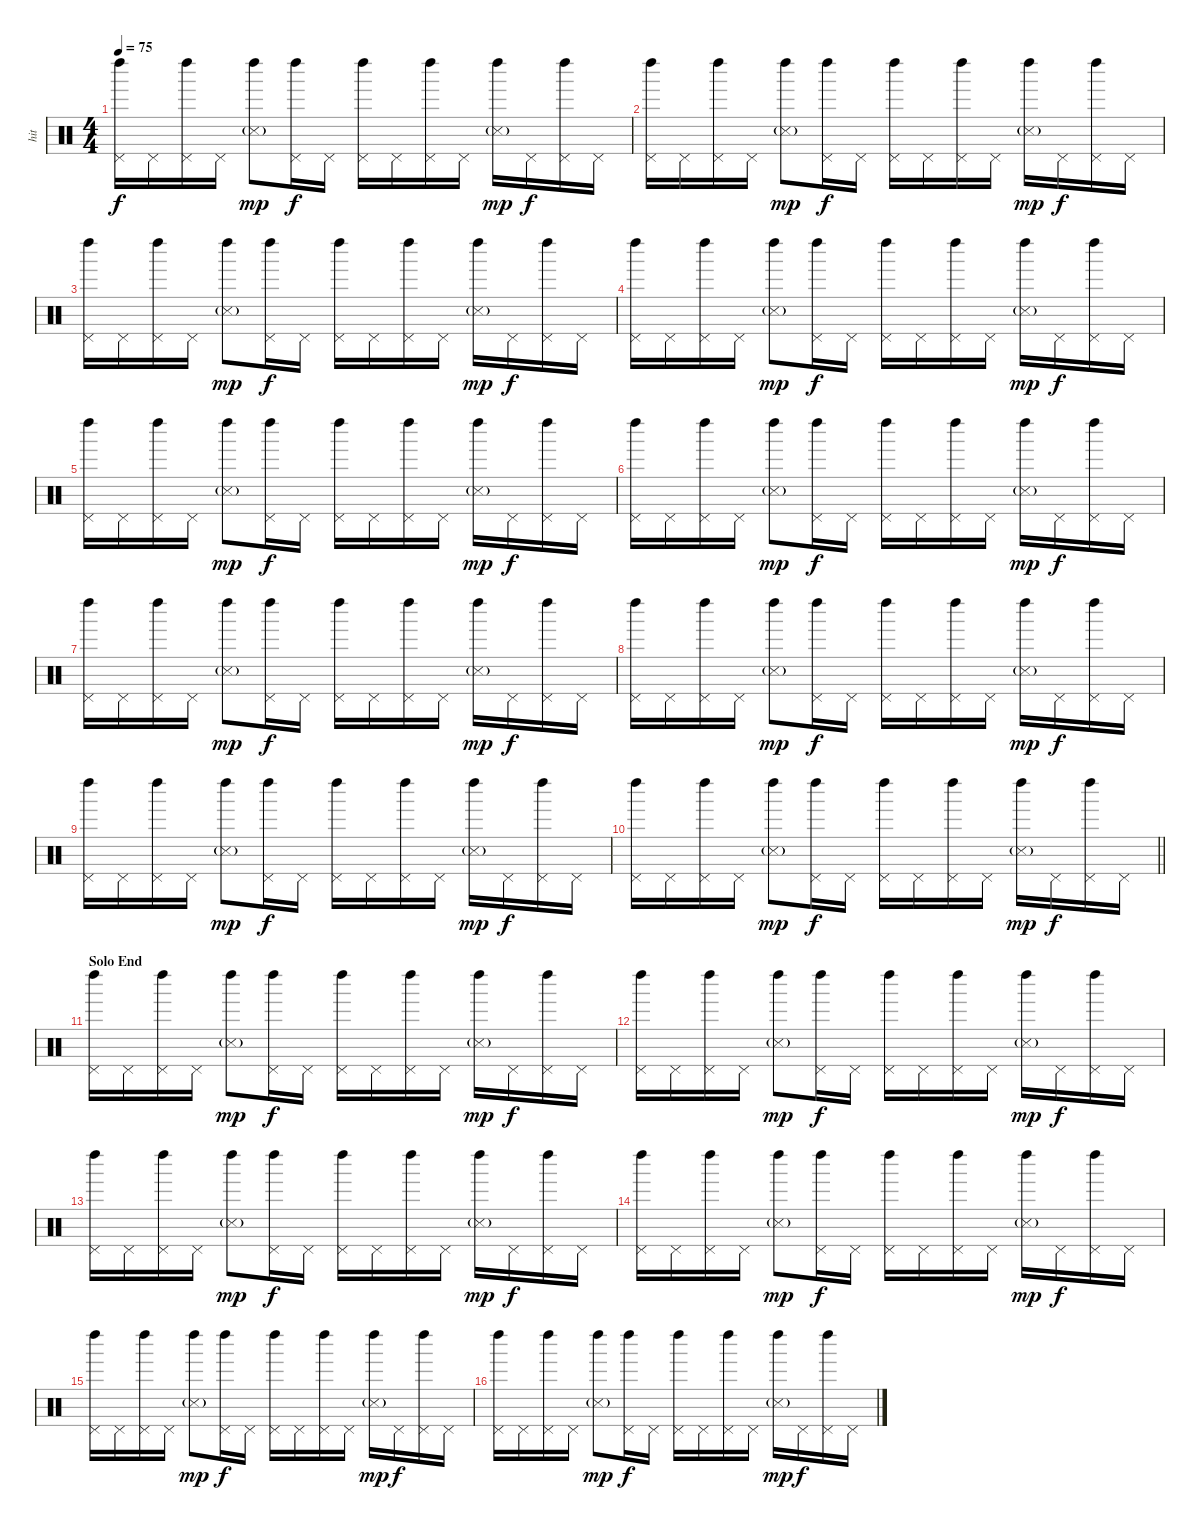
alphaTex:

\track ("hit" "hit") {instrument percussion}
\staff {score}
\articulation defaults
\ts (4 4)
\tempo 75
\clef neutral
\ks c
("Pedal Hi-Hat (hit)" "Left Maraca (hit)").16{dy f} "Pedal Hi-Hat (hit)".16 ("Pedal Hi-Hat (hit)" "Left Maraca (hit)").16 "Pedal Hi-Hat (hit)".16 ("Metronome (hit)"{g} "Left Maraca (hit)").8{dy mp} ("Pedal Hi-Hat (hit)" "Left Maraca (hit)").16{dy f} "Pedal Hi-Hat (hit)".16 ("Pedal Hi-Hat (hit)" "Left Maraca (hit)").16 "Pedal Hi-Hat (hit)".16 ("Pedal Hi-Hat (hit)" "Left Maraca (hit)").16 "Pedal Hi-Hat (hit)".16 ("Metronome (hit)"{g} "Left Maraca (hit)").16{dy mp} "Pedal Hi-Hat (hit)".16{dy f} ("Pedal Hi-Hat (hit)" "Left Maraca (hit)").16 "Pedal Hi-Hat (hit)".16 |
("Pedal Hi-Hat (hit)" "Left Maraca (hit)").16 "Pedal Hi-Hat (hit)".16 ("Pedal Hi-Hat (hit)" "Left Maraca (hit)").16 "Pedal Hi-Hat (hit)".16 ("Metronome (hit)"{g} "Left Maraca (hit)").8{dy mp} ("Pedal Hi-Hat (hit)" "Left Maraca (hit)").16{dy f} "Pedal Hi-Hat (hit)".16 ("Pedal Hi-Hat (hit)" "Left Maraca (hit)").16 "Pedal Hi-Hat (hit)".16 ("Pedal Hi-Hat (hit)" "Left Maraca (hit)").16 "Pedal Hi-Hat (hit)".16 ("Metronome (hit)"{g} "Left Maraca (hit)").16{dy mp} "Pedal Hi-Hat (hit)".16{dy f} ("Pedal Hi-Hat (hit)" "Left Maraca (hit)").16 "Pedal Hi-Hat (hit)".16 |
("Pedal Hi-Hat (hit)" "Left Maraca (hit)").16 "Pedal Hi-Hat (hit)".16 ("Pedal Hi-Hat (hit)" "Left Maraca (hit)").16 "Pedal Hi-Hat (hit)".16 ("Metronome (hit)"{g} "Left Maraca (hit)").8{dy mp} ("Pedal Hi-Hat (hit)" "Left Maraca (hit)").16{dy f} "Pedal Hi-Hat (hit)".16 ("Pedal Hi-Hat (hit)" "Left Maraca (hit)").16 "Pedal Hi-Hat (hit)".16 ("Pedal Hi-Hat (hit)" "Left Maraca (hit)").16 "Pedal Hi-Hat (hit)".16 ("Metronome (hit)"{g} "Left Maraca (hit)").16{dy mp} "Pedal Hi-Hat (hit)".16{dy f} ("Pedal Hi-Hat (hit)" "Left Maraca (hit)").16 "Pedal Hi-Hat (hit)".16 |
("Pedal Hi-Hat (hit)" "Left Maraca (hit)").16 "Pedal Hi-Hat (hit)".16 ("Pedal Hi-Hat (hit)" "Left Maraca (hit)").16 "Pedal Hi-Hat (hit)".16 ("Metronome (hit)"{g} "Left Maraca (hit)").8{dy mp} ("Pedal Hi-Hat (hit)" "Left Maraca (hit)").16{dy f} "Pedal Hi-Hat (hit)".16 ("Pedal Hi-Hat (hit)" "Left Maraca (hit)").16 "Pedal Hi-Hat (hit)".16 ("Pedal Hi-Hat (hit)" "Left Maraca (hit)").16 "Pedal Hi-Hat (hit)".16 ("Metronome (hit)"{g} "Left Maraca (hit)").16{dy mp} "Pedal Hi-Hat (hit)".16{dy f} ("Pedal Hi-Hat (hit)" "Left Maraca (hit)").16 "Pedal Hi-Hat (hit)".16 |
("Pedal Hi-Hat (hit)" "Left Maraca (hit)").16 "Pedal Hi-Hat (hit)".16 ("Pedal Hi-Hat (hit)" "Left Maraca (hit)").16 "Pedal Hi-Hat (hit)".16 ("Metronome (hit)"{g} "Left Maraca (hit)").8{dy mp} ("Pedal Hi-Hat (hit)" "Left Maraca (hit)").16{dy f} "Pedal Hi-Hat (hit)".16 ("Pedal Hi-Hat (hit)" "Left Maraca (hit)").16 "Pedal Hi-Hat (hit)".16 ("Pedal Hi-Hat (hit)" "Left Maraca (hit)").16 "Pedal Hi-Hat (hit)".16 ("Metronome (hit)"{g} "Left Maraca (hit)").16{dy mp} "Pedal Hi-Hat (hit)".16{dy f} ("Pedal Hi-Hat (hit)" "Left Maraca (hit)").16 "Pedal Hi-Hat (hit)".16 |
("Pedal Hi-Hat (hit)" "Left Maraca (hit)").16 "Pedal Hi-Hat (hit)".16 ("Pedal Hi-Hat (hit)" "Left Maraca (hit)").16 "Pedal Hi-Hat (hit)".16 ("Metronome (hit)"{g} "Left Maraca (hit)").8{dy mp} ("Pedal Hi-Hat (hit)" "Left Maraca (hit)").16{dy f} "Pedal Hi-Hat (hit)".16 ("Pedal Hi-Hat (hit)" "Left Maraca (hit)").16 "Pedal Hi-Hat (hit)".16 ("Pedal Hi-Hat (hit)" "Left Maraca (hit)").16 "Pedal Hi-Hat (hit)".16 ("Metronome (hit)"{g} "Left Maraca (hit)").16{dy mp} "Pedal Hi-Hat (hit)".16{dy f} ("Pedal Hi-Hat (hit)" "Left Maraca (hit)").16 "Pedal Hi-Hat (hit)".16 |
("Pedal Hi-Hat (hit)" "Left Maraca (hit)").16 "Pedal Hi-Hat (hit)".16 ("Pedal Hi-Hat (hit)" "Left Maraca (hit)").16 "Pedal Hi-Hat (hit)".16 ("Metronome (hit)"{g} "Left Maraca (hit)").8{dy mp} ("Pedal Hi-Hat (hit)" "Left Maraca (hit)").16{dy f} "Pedal Hi-Hat (hit)".16 ("Pedal Hi-Hat (hit)" "Left Maraca (hit)").16 "Pedal Hi-Hat (hit)".16 ("Pedal Hi-Hat (hit)" "Left Maraca (hit)").16 "Pedal Hi-Hat (hit)".16 ("Metronome (hit)"{g} "Left Maraca (hit)").16{dy mp} "Pedal Hi-Hat (hit)".16{dy f} ("Pedal Hi-Hat (hit)" "Left Maraca (hit)").16 "Pedal Hi-Hat (hit)".16 |
("Pedal Hi-Hat (hit)" "Left Maraca (hit)").16 "Pedal Hi-Hat (hit)".16 ("Pedal Hi-Hat (hit)" "Left Maraca (hit)").16 "Pedal Hi-Hat (hit)".16 ("Metronome (hit)"{g} "Left Maraca (hit)").8{dy mp} ("Pedal Hi-Hat (hit)" "Left Maraca (hit)").16{dy f} "Pedal Hi-Hat (hit)".16 ("Pedal Hi-Hat (hit)" "Left Maraca (hit)").16 "Pedal Hi-Hat (hit)".16 ("Pedal Hi-Hat (hit)" "Left Maraca (hit)").16 "Pedal Hi-Hat (hit)".16 ("Metronome (hit)"{g} "Left Maraca (hit)").16{dy mp} "Pedal Hi-Hat (hit)".16{dy f} ("Pedal Hi-Hat (hit)" "Left Maraca (hit)").16 "Pedal Hi-Hat (hit)".16 |
("Pedal Hi-Hat (hit)" "Left Maraca (hit)").16 "Pedal Hi-Hat (hit)".16 ("Pedal Hi-Hat (hit)" "Left Maraca (hit)").16 "Pedal Hi-Hat (hit)".16 ("Metronome (hit)"{g} "Left Maraca (hit)").8{dy mp} ("Pedal Hi-Hat (hit)" "Left Maraca (hit)").16{dy f} "Pedal Hi-Hat (hit)".16 ("Pedal Hi-Hat (hit)" "Left Maraca (hit)").16 "Pedal Hi-Hat (hit)".16 ("Pedal Hi-Hat (hit)" "Left Maraca (hit)").16 "Pedal Hi-Hat (hit)".16 ("Metronome (hit)"{g} "Left Maraca (hit)").16{dy mp} "Pedal Hi-Hat (hit)".16{dy f} ("Pedal Hi-Hat (hit)" "Left Maraca (hit)").16 "Pedal Hi-Hat (hit)".16 |
\barLineRight lightlight
("Pedal Hi-Hat (hit)" "Left Maraca (hit)").16 "Pedal Hi-Hat (hit)".16 ("Pedal Hi-Hat (hit)" "Left Maraca (hit)").16 "Pedal Hi-Hat (hit)".16 ("Metronome (hit)"{g} "Left Maraca (hit)").8{dy mp} ("Pedal Hi-Hat (hit)" "Left Maraca (hit)").16{dy f} "Pedal Hi-Hat (hit)".16 ("Pedal Hi-Hat (hit)" "Left Maraca (hit)").16 "Pedal Hi-Hat (hit)".16 ("Pedal Hi-Hat (hit)" "Left Maraca (hit)").16 "Pedal Hi-Hat (hit)".16 ("Metronome (hit)"{g} "Left Maraca (hit)").16{dy mp} "Pedal Hi-Hat (hit)".16{dy f} ("Pedal Hi-Hat (hit)" "Left Maraca (hit)").16 "Pedal Hi-Hat (hit)".16 |
\section ("" "Solo End")
("Pedal Hi-Hat (hit)" "Left Maraca (hit)").16 "Pedal Hi-Hat (hit)".16 ("Pedal Hi-Hat (hit)" "Left Maraca (hit)").16 "Pedal Hi-Hat (hit)".16 ("Metronome (hit)"{g} "Left Maraca (hit)").8{dy mp} ("Pedal Hi-Hat (hit)" "Left Maraca (hit)").16{dy f} "Pedal Hi-Hat (hit)".16 ("Pedal Hi-Hat (hit)" "Left Maraca (hit)").16 "Pedal Hi-Hat (hit)".16 ("Pedal Hi-Hat (hit)" "Left Maraca (hit)").16 "Pedal Hi-Hat (hit)".16 ("Metronome (hit)"{g} "Left Maraca (hit)").16{dy mp} "Pedal Hi-Hat (hit)".16{dy f} ("Pedal Hi-Hat (hit)" "Left Maraca (hit)").16 "Pedal Hi-Hat (hit)".16 |
("Pedal Hi-Hat (hit)" "Left Maraca (hit)").16 "Pedal Hi-Hat (hit)".16 ("Pedal Hi-Hat (hit)" "Left Maraca (hit)").16 "Pedal Hi-Hat (hit)".16 ("Metronome (hit)"{g} "Left Maraca (hit)").8{dy mp} ("Pedal Hi-Hat (hit)" "Left Maraca (hit)").16{dy f} "Pedal Hi-Hat (hit)".16 ("Pedal Hi-Hat (hit)" "Left Maraca (hit)").16 "Pedal Hi-Hat (hit)".16 ("Pedal Hi-Hat (hit)" "Left Maraca (hit)").16 "Pedal Hi-Hat (hit)".16 ("Metronome (hit)"{g} "Left Maraca (hit)").16{dy mp} "Pedal Hi-Hat (hit)".16{dy f} ("Pedal Hi-Hat (hit)" "Left Maraca (hit)").16 "Pedal Hi-Hat (hit)".16 |
("Pedal Hi-Hat (hit)" "Left Maraca (hit)").16 "Pedal Hi-Hat (hit)".16 ("Pedal Hi-Hat (hit)" "Left Maraca (hit)").16 "Pedal Hi-Hat (hit)".16 ("Metronome (hit)"{g} "Left Maraca (hit)").8{dy mp} ("Pedal Hi-Hat (hit)" "Left Maraca (hit)").16{dy f} "Pedal Hi-Hat (hit)".16 ("Pedal Hi-Hat (hit)" "Left Maraca (hit)").16 "Pedal Hi-Hat (hit)".16 ("Pedal Hi-Hat (hit)" "Left Maraca (hit)").16 "Pedal Hi-Hat (hit)".16 ("Metronome (hit)"{g} "Left Maraca (hit)").16{dy mp} "Pedal Hi-Hat (hit)".16{dy f} ("Pedal Hi-Hat (hit)" "Left Maraca (hit)").16 "Pedal Hi-Hat (hit)".16 |
("Pedal Hi-Hat (hit)" "Left Maraca (hit)").16 "Pedal Hi-Hat (hit)".16 ("Pedal Hi-Hat (hit)" "Left Maraca (hit)").16 "Pedal Hi-Hat (hit)".16 ("Metronome (hit)"{g} "Left Maraca (hit)").8{dy mp} ("Pedal Hi-Hat (hit)" "Left Maraca (hit)").16{dy f} "Pedal Hi-Hat (hit)".16 ("Pedal Hi-Hat (hit)" "Left Maraca (hit)").16 "Pedal Hi-Hat (hit)".16 ("Pedal Hi-Hat (hit)" "Left Maraca (hit)").16 "Pedal Hi-Hat (hit)".16 ("Metronome (hit)"{g} "Left Maraca (hit)").16{dy mp} "Pedal Hi-Hat (hit)".16{dy f} ("Pedal Hi-Hat (hit)" "Left Maraca (hit)").16 "Pedal Hi-Hat (hit)".16 |
("Pedal Hi-Hat (hit)" "Left Maraca (hit)").16 "Pedal Hi-Hat (hit)".16 ("Pedal Hi-Hat (hit)" "Left Maraca (hit)").16 "Pedal Hi-Hat (hit)".16 ("Metronome (hit)"{g} "Left Maraca (hit)").8{dy mp} ("Pedal Hi-Hat (hit)" "Left Maraca (hit)").16{dy f} "Pedal Hi-Hat (hit)".16 ("Pedal Hi-Hat (hit)" "Left Maraca (hit)").16 "Pedal Hi-Hat (hit)".16 ("Pedal Hi-Hat (hit)" "Left Maraca (hit)").16 "Pedal Hi-Hat (hit)".16 ("Metronome (hit)"{g} "Left Maraca (hit)").16{dy mp} "Pedal Hi-Hat (hit)".16{dy f} ("Pedal Hi-Hat (hit)" "Left Maraca (hit)").16 "Pedal Hi-Hat (hit)".16 |
("Pedal Hi-Hat (hit)" "Left Maraca (hit)").16 "Pedal Hi-Hat (hit)".16 ("Pedal Hi-Hat (hit)" "Left Maraca (hit)").16 "Pedal Hi-Hat (hit)".16 ("Metronome (hit)"{g} "Left Maraca (hit)").8{dy mp} ("Pedal Hi-Hat (hit)" "Left Maraca (hit)").16{dy f} "Pedal Hi-Hat (hit)".16 ("Pedal Hi-Hat (hit)" "Left Maraca (hit)").16 "Pedal Hi-Hat (hit)".16 ("Pedal Hi-Hat (hit)" "Left Maraca (hit)").16 "Pedal Hi-Hat (hit)".16 ("Metronome (hit)"{g} "Left Maraca (hit)").16{dy mp} "Pedal Hi-Hat (hit)".16{dy f} ("Pedal Hi-Hat (hit)" "Left Maraca (hit)").16 "Pedal Hi-Hat (hit)".16
